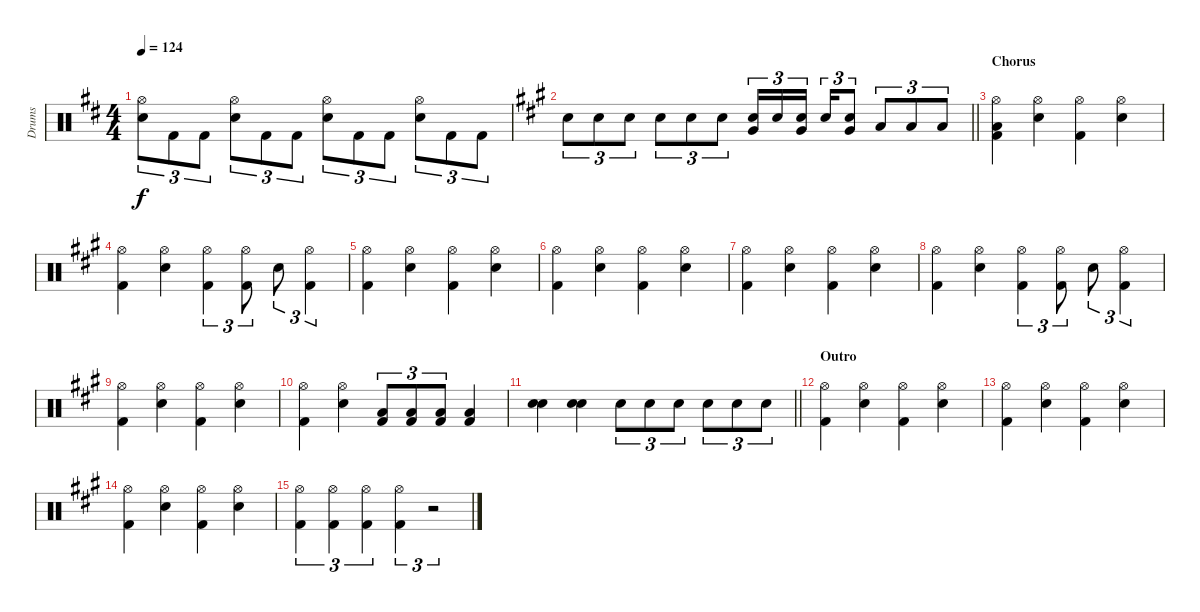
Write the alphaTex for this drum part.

\track ("Drums" "Drums") {instrument percussion}
\staff {score}
\articulation defaults
\ts (4 4)
\tempo 124
\clef neutral
\ks d
("Hi-Hat (open)" "Electric Snare (hit)").8{tu (3 2) dy f} "Kick (hit) 2".8{tu (3 2)} "Kick (hit) 2".8{tu (3 2)} ("Hi-Hat (open)" "Electric Snare (hit)").8{tu (3 2)} "Kick (hit) 2".8{tu (3 2)} "Kick (hit) 2".8{tu (3 2)} ("Hi-Hat (open)" "Electric Snare (hit)").8{tu (3 2)} "Kick (hit) 2".8{tu (3 2)} "Kick (hit) 2".8{tu (3 2)} ("Hi-Hat (open)" "Electric Snare (hit)").8{tu (3 2)} "Kick (hit) 2".8{tu (3 2)} "Kick (hit) 2".8{tu (3 2)} |
\barLineRight lightlight
\ks a "Electric Snare (hit)".8{tu (3 2)} "Electric Snare (hit)".8{tu (3 2)} "Electric Snare (hit)".8{tu (3 2)} "Electric Snare (hit)".8{tu (3 2)} "Electric Snare (hit)".8{tu (3 2)} "Electric Snare (hit)".8{tu (3 2)}
("Electric Snare (hit)" "Very Low Tom (hit)").16{tu (3 2)} "Electric Snare (hit)".16{tu (3 2)} ("Electric Snare (hit)" "Very Low Tom (hit)").16{tu (3 2) beam splitsecondary} "Electric Snare (hit)".16{tu (3 2)} ("Electric Snare (hit)" "Very Low Tom (hit)").8{tu (3 2)} "Low Floor Tom (hit)".8{tu (3 2)} "Low Floor Tom (hit)".8{tu (3 2)} "Low Floor Tom (hit)".8{tu (3 2)} |
\section ("" "Chorus")
("Hi-Hat (open)" "Low Floor Tom (hit)" "Kick (hit) 2").4 ("Hi-Hat (open)" "Electric Snare (hit)").4 ("Hi-Hat (open)" "Kick (hit) 2").4 ("Hi-Hat (open)" "Electric Snare (hit)").4 |
("Hi-Hat (open)" "Kick (hit) 2").4 ("Hi-Hat (open)" "Electric Snare (hit)").4 ("Hi-Hat (open)" "Kick (hit) 2").4{tu (3 2)} ("Hi-Hat (open)" "Kick (hit) 2").8{tu (3 2)} "Electric Snare (hit)".8{tu (3 2)} ("Hi-Hat (open)" "Kick (hit) 2").4{tu (3 2)} |
("Hi-Hat (open)" "Kick (hit) 2").4 ("Hi-Hat (open)" "Electric Snare (hit)").4 ("Hi-Hat (open)" "Kick (hit) 2").4 ("Hi-Hat (open)" "Electric Snare (hit)").4 |
("Hi-Hat (open)" "Kick (hit) 2").4 ("Hi-Hat (open)" "Electric Snare (hit)").4 ("Hi-Hat (open)" "Kick (hit) 2").4 ("Hi-Hat (open)" "Electric Snare (hit)").4 |
("Hi-Hat (open)" "Kick (hit) 2").4 ("Hi-Hat (open)" "Electric Snare (hit)").4 ("Hi-Hat (open)" "Kick (hit) 2").4 ("Hi-Hat (open)" "Electric Snare (hit)").4 |
("Hi-Hat (open)" "Kick (hit) 2").4 ("Hi-Hat (open)" "Electric Snare (hit)").4 ("Hi-Hat (open)" "Kick (hit) 2").4{tu (3 2)} ("Hi-Hat (open)" "Kick (hit) 2").8{tu (3 2)} "Electric Snare (hit)".8{tu (3 2)} ("Hi-Hat (open)" "Kick (hit) 2").4{tu (3 2)} |
("Hi-Hat (open)" "Kick (hit) 2").4 ("Hi-Hat (open)" "Electric Snare (hit)").4 ("Hi-Hat (open)" "Kick (hit) 2").4 ("Hi-Hat (open)" "Electric Snare (hit)").4 |
("Hi-Hat (open)" "Kick (hit) 2").4 ("Hi-Hat (open)" "Electric Snare (hit)").4 ("Low Floor Tom (hit)" "Kick (hit) 2").8{tu (3 2)} ("Low Floor Tom (hit)" "Kick (hit) 2").8{tu (3 2)} ("Low Floor Tom (hit)" "Kick (hit) 2").8{tu (3 2)} ("Low Floor Tom (hit)" "Kick (hit) 2").4 |
\barLineRight lightlight
("Electric Snare (hit)" "Snare (hit) 2").4 ("Electric Snare (hit)" "Snare (hit) 2").4 "Electric Snare (hit)".8{tu (3 2)} "Electric Snare (hit)".8{tu (3 2)} "Electric Snare (hit)".8{tu (3 2)} "Electric Snare (hit)".8{tu (3 2)} "Electric Snare (hit)".8{tu (3 2)} "Electric Snare (hit)".8{tu (3 2)} |
\section ("" "Outro")
("Hi-Hat (open)" "Kick (hit) 2").4 ("Hi-Hat (open)" "Electric Snare (hit)").4 ("Hi-Hat (open)" "Kick (hit) 2").4 ("Hi-Hat (open)" "Electric Snare (hit)").4 |
("Hi-Hat (open)" "Kick (hit) 2").4 ("Hi-Hat (open)" "Electric Snare (hit)").4 ("Hi-Hat (open)" "Kick (hit) 2").4 ("Hi-Hat (open)" "Electric Snare (hit)").4 |
("Hi-Hat (open)" "Kick (hit) 2").4 ("Hi-Hat (open)" "Electric Snare (hit)").4 ("Hi-Hat (open)" "Kick (hit) 2").4 ("Hi-Hat (open)" "Electric Snare (hit)").4 |
("Hi-Hat (open)" "Kick (hit) 2").4{tu (3 2)} ("Hi-Hat (open)" "Kick (hit) 2").4{tu (3 2)} ("Hi-Hat (open)" "Kick (hit) 2").4{tu (3 2)} ("Hi-Hat (open)" "Kick (hit) 2").4{tu (3 2)} r.2{tu (3 2)}
